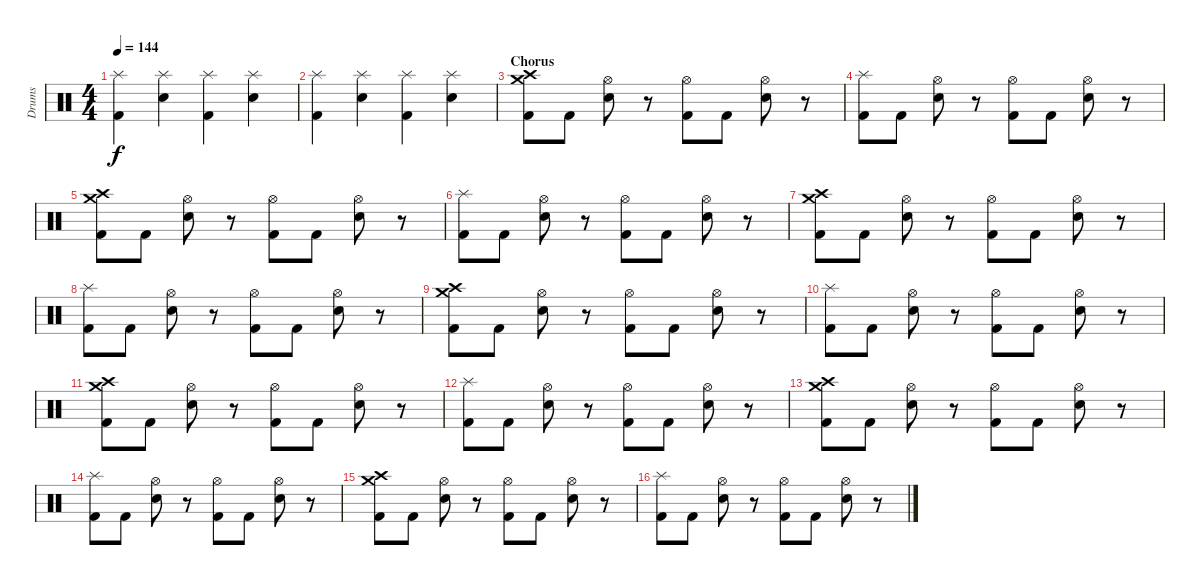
\track ("Drums" "Drums") {instrument percussion}
\staff {score}
\articulation defaults
\ts (4 4)
\tempo 144
\clef neutral
\ks c
("Splash (hit)" "Kick (hit) 2").4{dy f} ("Splash (hit)" "Snare (hit) 2").4 ("Splash (hit)" "Kick (hit) 2").4 ("Splash (hit)" "Snare (hit) 2").4 |
("Splash (hit)" "Kick (hit) 2").4 ("Splash (hit)" "Snare (hit) 2").4 ("Splash (hit)" "Kick (hit) 2").4 ("Splash (hit)" "Snare (hit) 2").4 |
\section ("" "Chorus")
("Crash medium (hit)" "Crash high (hit)" "Kick (hit) 2").8 "Kick (hit) 2".8 ("Hi-Hat (open)" "Snare (hit) 2").8 r.8 ("Hi-Hat (open)" "Kick (hit) 2").8 "Kick (hit) 2".8 ("Hi-Hat (open)" "Snare (hit) 2").8 r.8 |
("Splash (hit)" "Kick (hit) 2").8 "Kick (hit) 2".8 ("Hi-Hat (open)" "Snare (hit) 2").8 r.8 ("Hi-Hat (open)" "Kick (hit) 2").8 "Kick (hit) 2".8 ("Hi-Hat (open)" "Snare (hit) 2").8 r.8 |
("Crash medium (hit)" "Crash high (hit)" "Kick (hit) 2").8 "Kick (hit) 2".8 ("Hi-Hat (open)" "Snare (hit) 2").8 r.8 ("Hi-Hat (open)" "Kick (hit) 2").8 "Kick (hit) 2".8 ("Hi-Hat (open)" "Snare (hit) 2").8 r.8 |
("Splash (hit)" "Kick (hit) 2").8 "Kick (hit) 2".8 ("Hi-Hat (open)" "Snare (hit) 2").8 r.8 ("Hi-Hat (open)" "Kick (hit) 2").8 "Kick (hit) 2".8 ("Hi-Hat (open)" "Snare (hit) 2").8 r.8 |
("Crash medium (hit)" "Crash high (hit)" "Kick (hit) 2").8 "Kick (hit) 2".8 ("Hi-Hat (open)" "Snare (hit) 2").8 r.8 ("Hi-Hat (open)" "Kick (hit) 2").8 "Kick (hit) 2".8 ("Hi-Hat (open)" "Snare (hit) 2").8 r.8 |
("Splash (hit)" "Kick (hit) 2").8 "Kick (hit) 2".8 ("Hi-Hat (open)" "Snare (hit) 2").8 r.8 ("Hi-Hat (open)" "Kick (hit) 2").8 "Kick (hit) 2".8 ("Hi-Hat (open)" "Snare (hit) 2").8 r.8 |
("Crash medium (hit)" "Crash high (hit)" "Kick (hit) 2").8 "Kick (hit) 2".8 ("Hi-Hat (open)" "Snare (hit) 2").8 r.8 ("Hi-Hat (open)" "Kick (hit) 2").8 "Kick (hit) 2".8 ("Hi-Hat (open)" "Snare (hit) 2").8 r.8 |
("Splash (hit)" "Kick (hit) 2").8 "Kick (hit) 2".8 ("Hi-Hat (open)" "Snare (hit) 2").8 r.8 ("Hi-Hat (open)" "Kick (hit) 2").8 "Kick (hit) 2".8 ("Hi-Hat (open)" "Snare (hit) 2").8 r.8 |
("Crash medium (hit)" "Crash high (hit)" "Kick (hit) 2").8 "Kick (hit) 2".8 ("Hi-Hat (open)" "Snare (hit) 2").8 r.8 ("Hi-Hat (open)" "Kick (hit) 2").8 "Kick (hit) 2".8 ("Hi-Hat (open)" "Snare (hit) 2").8 r.8 |
("Splash (hit)" "Kick (hit) 2").8 "Kick (hit) 2".8 ("Hi-Hat (open)" "Snare (hit) 2").8 r.8 ("Hi-Hat (open)" "Kick (hit) 2").8 "Kick (hit) 2".8 ("Hi-Hat (open)" "Snare (hit) 2").8 r.8 |
("Crash medium (hit)" "Crash high (hit)" "Kick (hit) 2").8 "Kick (hit) 2".8 ("Hi-Hat (open)" "Snare (hit) 2").8 r.8 ("Hi-Hat (open)" "Kick (hit) 2").8 "Kick (hit) 2".8 ("Hi-Hat (open)" "Snare (hit) 2").8 r.8 |
("Splash (hit)" "Kick (hit) 2").8 "Kick (hit) 2".8 ("Hi-Hat (open)" "Snare (hit) 2").8 r.8 ("Hi-Hat (open)" "Kick (hit) 2").8 "Kick (hit) 2".8 ("Hi-Hat (open)" "Snare (hit) 2").8 r.8 |
("Crash medium (hit)" "Crash high (hit)" "Kick (hit) 2").8 "Kick (hit) 2".8 ("Hi-Hat (open)" "Snare (hit) 2").8 r.8 ("Hi-Hat (open)" "Kick (hit) 2").8 "Kick (hit) 2".8 ("Hi-Hat (open)" "Snare (hit) 2").8 r.8 |
("Splash (hit)" "Kick (hit) 2").8 "Kick (hit) 2".8 ("Hi-Hat (open)" "Snare (hit) 2").8 r.8 ("Hi-Hat (open)" "Kick (hit) 2").8 "Kick (hit) 2".8 ("Hi-Hat (open)" "Snare (hit) 2").8 r.8
